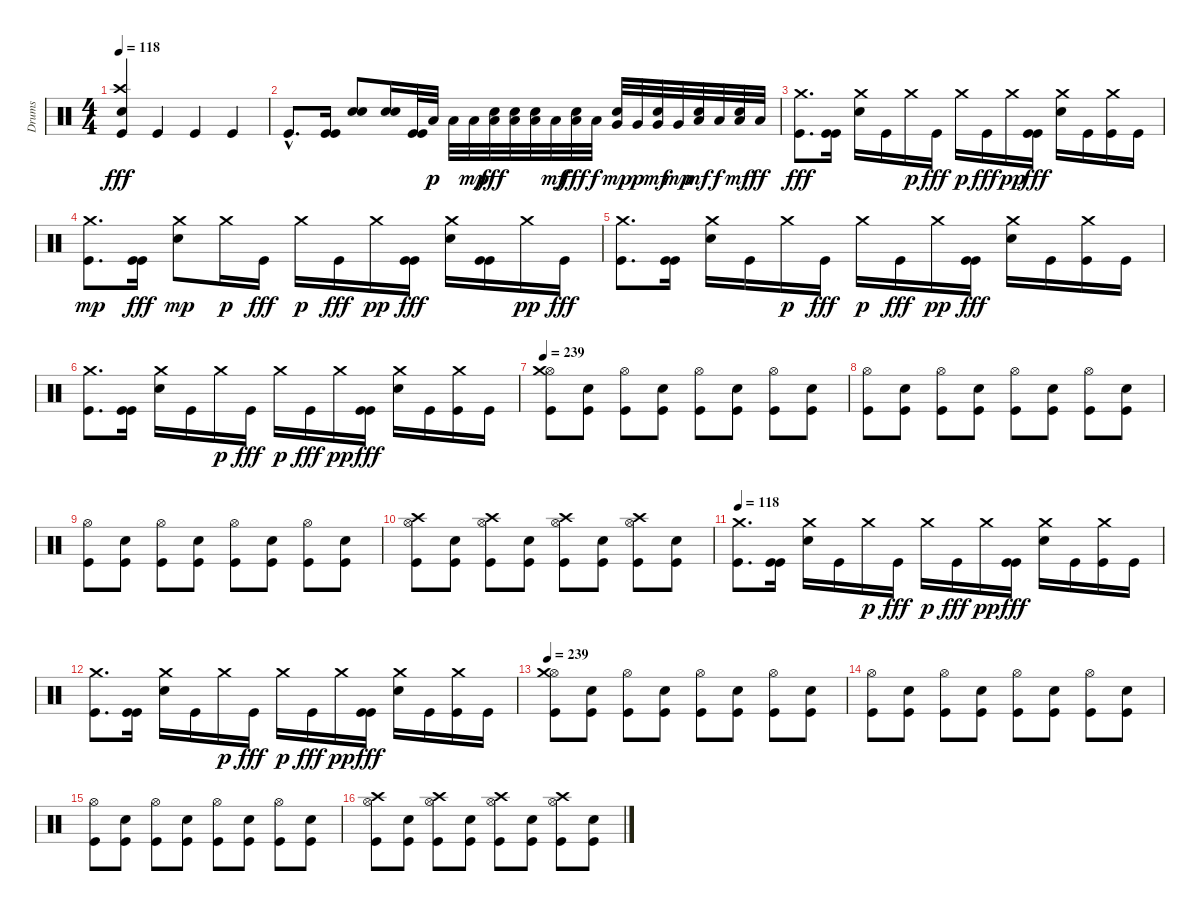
\track ("Drums" "Drums") {instrument percussion}
\staff {score}
\articulation defaults
\ts (4 4)
\tempo 118
\clef neutral
\ks c
("Electric Snare (hit)" "Crash high (hit)" "Kick (hit)").4{dy fff} "Kick (hit)".4 "Kick (hit)".4 "Kick (hit)".4 |
"Kick (hit)"{hac}.8{d} ("Kick (hit)" "Kick (hit)").16 ("Electric Snare (hit)" "Electric Snare (hit)").8 ("Electric Snare (hit)" "Electric Snare (hit)").16 ("Kick (hit)" "Kick (hit)").32 "Low Tom (hit)".32{dy p} "Low Tom (hit)".32 "Low Tom (hit)".32{dy mp} ("Low Tom (hit)" "Electric Snare (hit)").32{dy fff} ("Low Tom (hit)" "Electric Snare (hit)").32 ("Low Tom (hit)" "Electric Snare (hit)").32 "Low Tom (hit)".32{dy mf} ("Low Tom (hit)" "Electric Snare (hit)").32{dy fff} "Low Tom (hit)".32{dy f} ("Very Low Tom (hit)" "Electric Snare (hit)").32{dy mp} "Very Low Tom (hit)".32{dy p} ("Very Low Tom (hit)" "Electric Snare (hit)").32{dy mf} "Very Low Tom (hit)".32{dy mp} ("Low Floor Tom (hit)" "Electric Snare (hit)").32{dy mf} "Low Floor Tom (hit)".32{dy f} ("Low Floor Tom (hit)" "Electric Snare (hit)").32{dy mf} "Low Floor Tom (hit)".32{dy ff} |
("Crash medium (hit)" "Kick (hit)").8{d dy fff} ("Kick (hit)" "Kick (hit)").16 ("Crash medium (hit)" "Electric Snare (hit)").16 "Kick (hit)".16 "Crash medium (hit)".16{dy p} "Kick (hit)".16{dy fff} "Crash medium (hit)".16{dy p} "Kick (hit)".16{dy fff} "Crash medium (hit)".16{dy pp} ("Kick (hit)" "Kick (hit)").16{dy fff} ("Crash medium (hit)" "Electric Snare (hit)").16 "Kick (hit)".16 ("Crash medium (hit)" "Kick (hit)").16 "Kick (hit)".16 |
("Kick (hit)" "Crash medium (hit)").8{d dy mp} ("Kick (hit)" "Kick (hit)").16{dy fff} ("Electric Snare (hit)" "Crash medium (hit)").8{dy mp} "Crash medium (hit)".16{dy p} "Kick (hit)".16{dy fff} "Crash medium (hit)".16{dy p} "Kick (hit)".16{dy fff} "Crash medium (hit)".16{dy pp} ("Kick (hit)" "Kick (hit)").16{dy fff} ("Crash medium (hit)" "Electric Snare (hit)").16 ("Kick (hit)" "Kick (hit)").16 "Crash medium (hit)".16{dy pp} "Kick (hit)".16{dy fff} |
("Crash medium (hit)" "Kick (hit)").8{d} ("Kick (hit)" "Kick (hit)").16 ("Crash medium (hit)" "Electric Snare (hit)").16 "Kick (hit)".16 "Crash medium (hit)".16{dy p} "Kick (hit)".16{dy fff} "Crash medium (hit)".16{dy p} "Kick (hit)".16{dy fff} "Crash medium (hit)".16{dy pp} ("Kick (hit)" "Kick (hit)").16{dy fff} ("Crash medium (hit)" "Electric Snare (hit)").16 "Kick (hit)".16 ("Crash medium (hit)" "Kick (hit)").16 "Kick (hit)".16 |
("Crash medium (hit)" "Kick (hit)").8{d} ("Kick (hit)" "Kick (hit)").16 ("Crash medium (hit)" "Electric Snare (hit)").16 "Kick (hit)".16 "Crash medium (hit)".16{dy p} "Kick (hit)".16{dy fff} "Crash medium (hit)".16{dy p} "Kick (hit)".16{dy fff} "Crash medium (hit)".16{dy pp} ("Kick (hit)" "Kick (hit)").16{dy fff} ("Crash medium (hit)" "Electric Snare (hit)").16 "Kick (hit)".16 ("Crash medium (hit)" "Kick (hit)").16 "Kick (hit)".16 |
\tempo 239
("Hi-Hat (open)" "Kick (hit)" "Crash medium (hit)").8 ("Electric Snare (hit)" "Kick (hit)").8 ("Hi-Hat (open)" "Kick (hit)").8 ("Electric Snare (hit)" "Kick (hit)").8 ("Hi-Hat (open)" "Kick (hit)").8 ("Electric Snare (hit)" "Kick (hit)").8 ("Hi-Hat (open)" "Kick (hit)").8 ("Electric Snare (hit)" "Kick (hit)").8 |
("Hi-Hat (open)" "Kick (hit)").8 ("Electric Snare (hit)" "Kick (hit)").8 ("Hi-Hat (open)" "Kick (hit)").8 ("Electric Snare (hit)" "Kick (hit)").8 ("Hi-Hat (open)" "Kick (hit)").8 ("Electric Snare (hit)" "Kick (hit)").8 ("Hi-Hat (open)" "Kick (hit)").8 ("Electric Snare (hit)" "Kick (hit)").8 |
("Hi-Hat (open)" "Kick (hit)").8 ("Electric Snare (hit)" "Kick (hit)").8 ("Hi-Hat (open)" "Kick (hit)").8 ("Electric Snare (hit)" "Kick (hit)").8 ("Hi-Hat (open)" "Kick (hit)").8 ("Electric Snare (hit)" "Kick (hit)").8 ("Hi-Hat (open)" "Kick (hit)").8 ("Electric Snare (hit)" "Kick (hit)").8 |
("Crash high (hit)" "Hi-Hat (open)" "Kick (hit)").8 ("Electric Snare (hit)" "Kick (hit)").8 ("Crash high (hit)" "Hi-Hat (open)" "Kick (hit)").8 ("Electric Snare (hit)" "Kick (hit)").8 ("Crash high (hit)" "Hi-Hat (open)" "Kick (hit)").8 ("Electric Snare (hit)" "Kick (hit)").8 ("Crash high (hit)" "Hi-Hat (open)" "Kick (hit)").8 ("Electric Snare (hit)" "Kick (hit)").8 |
\tempo 118
("Crash medium (hit)" "Kick (hit)").8{d} ("Kick (hit)" "Kick (hit)").16 ("Crash medium (hit)" "Electric Snare (hit)").16 "Kick (hit)".16 "Crash medium (hit)".16{dy p} "Kick (hit)".16{dy fff} "Crash medium (hit)".16{dy p} "Kick (hit)".16{dy fff} "Crash medium (hit)".16{dy pp} ("Kick (hit)" "Kick (hit)").16{dy fff} ("Crash medium (hit)" "Electric Snare (hit)").16 "Kick (hit)".16 ("Crash medium (hit)" "Kick (hit)").16 "Kick (hit)".16 |
("Crash medium (hit)" "Kick (hit)").8{d} ("Kick (hit)" "Kick (hit)").16 ("Crash medium (hit)" "Electric Snare (hit)").16 "Kick (hit)".16 "Crash medium (hit)".16{dy p} "Kick (hit)".16{dy fff} "Crash medium (hit)".16{dy p} "Kick (hit)".16{dy fff} "Crash medium (hit)".16{dy pp} ("Kick (hit)" "Kick (hit)").16{dy fff} ("Crash medium (hit)" "Electric Snare (hit)").16 "Kick (hit)".16 ("Crash medium (hit)" "Kick (hit)").16 "Kick (hit)".16 |
\tempo 239
("Hi-Hat (open)" "Kick (hit)" "Crash medium (hit)").8 ("Electric Snare (hit)" "Kick (hit)").8 ("Hi-Hat (open)" "Kick (hit)").8 ("Electric Snare (hit)" "Kick (hit)").8 ("Hi-Hat (open)" "Kick (hit)").8 ("Electric Snare (hit)" "Kick (hit)").8 ("Hi-Hat (open)" "Kick (hit)").8 ("Electric Snare (hit)" "Kick (hit)").8 |
("Hi-Hat (open)" "Kick (hit)").8 ("Electric Snare (hit)" "Kick (hit)").8 ("Hi-Hat (open)" "Kick (hit)").8 ("Electric Snare (hit)" "Kick (hit)").8 ("Hi-Hat (open)" "Kick (hit)").8 ("Electric Snare (hit)" "Kick (hit)").8 ("Hi-Hat (open)" "Kick (hit)").8 ("Electric Snare (hit)" "Kick (hit)").8 |
("Hi-Hat (open)" "Kick (hit)").8 ("Electric Snare (hit)" "Kick (hit)").8 ("Hi-Hat (open)" "Kick (hit)").8 ("Electric Snare (hit)" "Kick (hit)").8 ("Hi-Hat (open)" "Kick (hit)").8 ("Electric Snare (hit)" "Kick (hit)").8 ("Hi-Hat (open)" "Kick (hit)").8 ("Electric Snare (hit)" "Kick (hit)").8 |
("Crash high (hit)" "Hi-Hat (open)" "Kick (hit)").8 ("Electric Snare (hit)" "Kick (hit)").8 ("Crash high (hit)" "Hi-Hat (open)" "Kick (hit)").8 ("Electric Snare (hit)" "Kick (hit)").8 ("Crash high (hit)" "Hi-Hat (open)" "Kick (hit)").8 ("Electric Snare (hit)" "Kick (hit)").8 ("Crash high (hit)" "Hi-Hat (open)" "Kick (hit)").8 ("Electric Snare (hit)" "Kick (hit)").8
